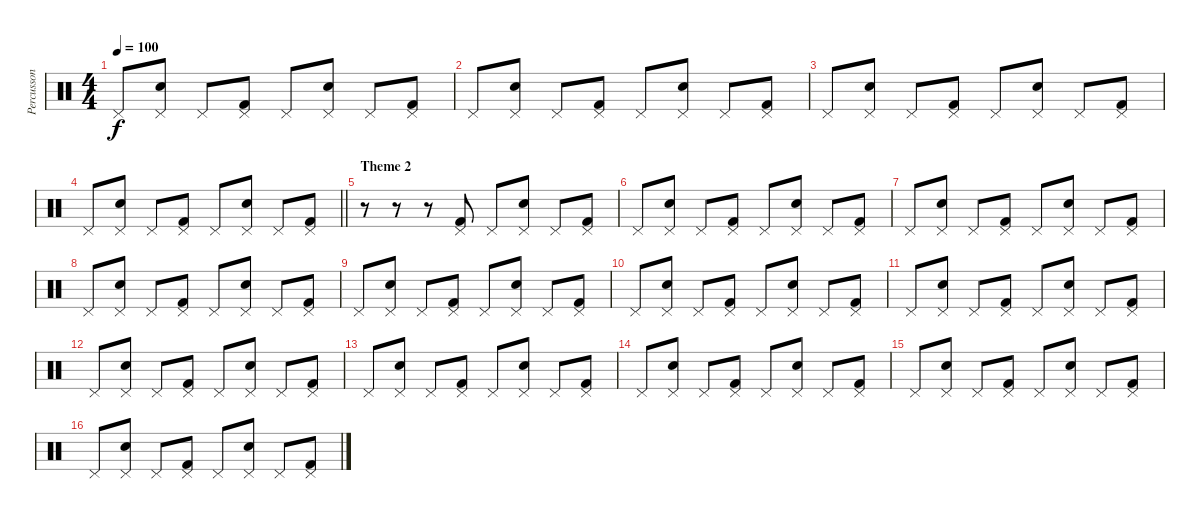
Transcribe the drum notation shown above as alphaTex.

\track ("Percusson" "Percusson") {instrument percussion}
\staff {score}
\articulation defaults
\ts (4 4)
\tempo 100
\clef neutral
\ks c "Pedal Hi-Hat (hit)".8{dy f}
("Pedal Hi-Hat (hit)" "Electric Snare (hit)").8 "Pedal Hi-Hat (hit)".8 ("Pedal Hi-Hat (hit)" "Kick (hit) 2").8 "Pedal Hi-Hat (hit)".8 ("Pedal Hi-Hat (hit)" "Electric Snare (hit)").8 "Pedal Hi-Hat (hit)".8 ("Pedal Hi-Hat (hit)" "Kick (hit) 2").8 |
"Pedal Hi-Hat (hit)".8 ("Pedal Hi-Hat (hit)" "Electric Snare (hit)").8 "Pedal Hi-Hat (hit)".8 ("Pedal Hi-Hat (hit)" "Kick (hit) 2").8 "Pedal Hi-Hat (hit)".8 ("Pedal Hi-Hat (hit)" "Electric Snare (hit)").8 "Pedal Hi-Hat (hit)".8 ("Pedal Hi-Hat (hit)" "Kick (hit) 2").8 |
"Pedal Hi-Hat (hit)".8 ("Pedal Hi-Hat (hit)" "Electric Snare (hit)").8 "Pedal Hi-Hat (hit)".8 ("Pedal Hi-Hat (hit)" "Kick (hit) 2").8 "Pedal Hi-Hat (hit)".8 ("Pedal Hi-Hat (hit)" "Electric Snare (hit)").8 "Pedal Hi-Hat (hit)".8 ("Pedal Hi-Hat (hit)" "Kick (hit) 2").8 |
\barLineRight lightlight "Pedal Hi-Hat (hit)".8
("Pedal Hi-Hat (hit)" "Electric Snare (hit)").8 "Pedal Hi-Hat (hit)".8 ("Pedal Hi-Hat (hit)" "Kick (hit) 2").8 "Pedal Hi-Hat (hit)".8 ("Pedal Hi-Hat (hit)" "Electric Snare (hit)").8 "Pedal Hi-Hat (hit)".8 ("Pedal Hi-Hat (hit)" "Kick (hit) 2").8 |
\section ("" "Theme 2")
r.8 r.8 r.8 ("Pedal Hi-Hat (hit)" "Kick (hit) 2").8 "Pedal Hi-Hat (hit)".8 ("Pedal Hi-Hat (hit)" "Electric Snare (hit)").8 "Pedal Hi-Hat (hit)".8 ("Pedal Hi-Hat (hit)" "Kick (hit) 2").8 |
"Pedal Hi-Hat (hit)".8 ("Pedal Hi-Hat (hit)" "Electric Snare (hit)").8 "Pedal Hi-Hat (hit)".8 ("Pedal Hi-Hat (hit)" "Kick (hit) 2").8 "Pedal Hi-Hat (hit)".8 ("Pedal Hi-Hat (hit)" "Electric Snare (hit)").8 "Pedal Hi-Hat (hit)".8 ("Pedal Hi-Hat (hit)" "Kick (hit) 2").8 |
"Pedal Hi-Hat (hit)".8 ("Pedal Hi-Hat (hit)" "Electric Snare (hit)").8 "Pedal Hi-Hat (hit)".8 ("Pedal Hi-Hat (hit)" "Kick (hit) 2").8 "Pedal Hi-Hat (hit)".8 ("Pedal Hi-Hat (hit)" "Electric Snare (hit)").8 "Pedal Hi-Hat (hit)".8 ("Pedal Hi-Hat (hit)" "Kick (hit) 2").8 |
"Pedal Hi-Hat (hit)".8 ("Pedal Hi-Hat (hit)" "Electric Snare (hit)").8 "Pedal Hi-Hat (hit)".8 ("Pedal Hi-Hat (hit)" "Kick (hit) 2").8 "Pedal Hi-Hat (hit)".8 ("Pedal Hi-Hat (hit)" "Electric Snare (hit)").8 "Pedal Hi-Hat (hit)".8 ("Pedal Hi-Hat (hit)" "Kick (hit) 2").8 |
"Pedal Hi-Hat (hit)".8 ("Pedal Hi-Hat (hit)" "Electric Snare (hit)").8 "Pedal Hi-Hat (hit)".8 ("Pedal Hi-Hat (hit)" "Kick (hit) 2").8 "Pedal Hi-Hat (hit)".8 ("Pedal Hi-Hat (hit)" "Electric Snare (hit)").8 "Pedal Hi-Hat (hit)".8 ("Pedal Hi-Hat (hit)" "Kick (hit) 2").8 |
"Pedal Hi-Hat (hit)".8 ("Pedal Hi-Hat (hit)" "Electric Snare (hit)").8 "Pedal Hi-Hat (hit)".8 ("Pedal Hi-Hat (hit)" "Kick (hit) 2").8 "Pedal Hi-Hat (hit)".8 ("Pedal Hi-Hat (hit)" "Electric Snare (hit)").8 "Pedal Hi-Hat (hit)".8 ("Pedal Hi-Hat (hit)" "Kick (hit) 2").8 |
"Pedal Hi-Hat (hit)".8 ("Pedal Hi-Hat (hit)" "Electric Snare (hit)").8 "Pedal Hi-Hat (hit)".8 ("Pedal Hi-Hat (hit)" "Kick (hit) 2").8 "Pedal Hi-Hat (hit)".8 ("Pedal Hi-Hat (hit)" "Electric Snare (hit)").8 "Pedal Hi-Hat (hit)".8 ("Pedal Hi-Hat (hit)" "Kick (hit) 2").8 |
"Pedal Hi-Hat (hit)".8 ("Pedal Hi-Hat (hit)" "Electric Snare (hit)").8 "Pedal Hi-Hat (hit)".8 ("Pedal Hi-Hat (hit)" "Kick (hit) 2").8 "Pedal Hi-Hat (hit)".8 ("Pedal Hi-Hat (hit)" "Electric Snare (hit)").8 "Pedal Hi-Hat (hit)".8 ("Pedal Hi-Hat (hit)" "Kick (hit) 2").8 |
"Pedal Hi-Hat (hit)".8 ("Pedal Hi-Hat (hit)" "Electric Snare (hit)").8 "Pedal Hi-Hat (hit)".8 ("Pedal Hi-Hat (hit)" "Kick (hit) 2").8 "Pedal Hi-Hat (hit)".8 ("Pedal Hi-Hat (hit)" "Electric Snare (hit)").8 "Pedal Hi-Hat (hit)".8 ("Pedal Hi-Hat (hit)" "Kick (hit) 2").8 |
"Pedal Hi-Hat (hit)".8 ("Pedal Hi-Hat (hit)" "Electric Snare (hit)").8 "Pedal Hi-Hat (hit)".8 ("Pedal Hi-Hat (hit)" "Kick (hit) 2").8 "Pedal Hi-Hat (hit)".8 ("Pedal Hi-Hat (hit)" "Electric Snare (hit)").8 "Pedal Hi-Hat (hit)".8 ("Pedal Hi-Hat (hit)" "Kick (hit) 2").8 |
"Pedal Hi-Hat (hit)".8 ("Pedal Hi-Hat (hit)" "Electric Snare (hit)").8 "Pedal Hi-Hat (hit)".8 ("Pedal Hi-Hat (hit)" "Kick (hit) 2").8 "Pedal Hi-Hat (hit)".8 ("Pedal Hi-Hat (hit)" "Electric Snare (hit)").8 "Pedal Hi-Hat (hit)".8 ("Pedal Hi-Hat (hit)" "Kick (hit) 2").8 |
"Pedal Hi-Hat (hit)".8 ("Pedal Hi-Hat (hit)" "Electric Snare (hit)").8 "Pedal Hi-Hat (hit)".8 ("Pedal Hi-Hat (hit)" "Kick (hit) 2").8 "Pedal Hi-Hat (hit)".8 ("Pedal Hi-Hat (hit)" "Electric Snare (hit)").8 "Pedal Hi-Hat (hit)".8 ("Pedal Hi-Hat (hit)" "Kick (hit) 2").8
